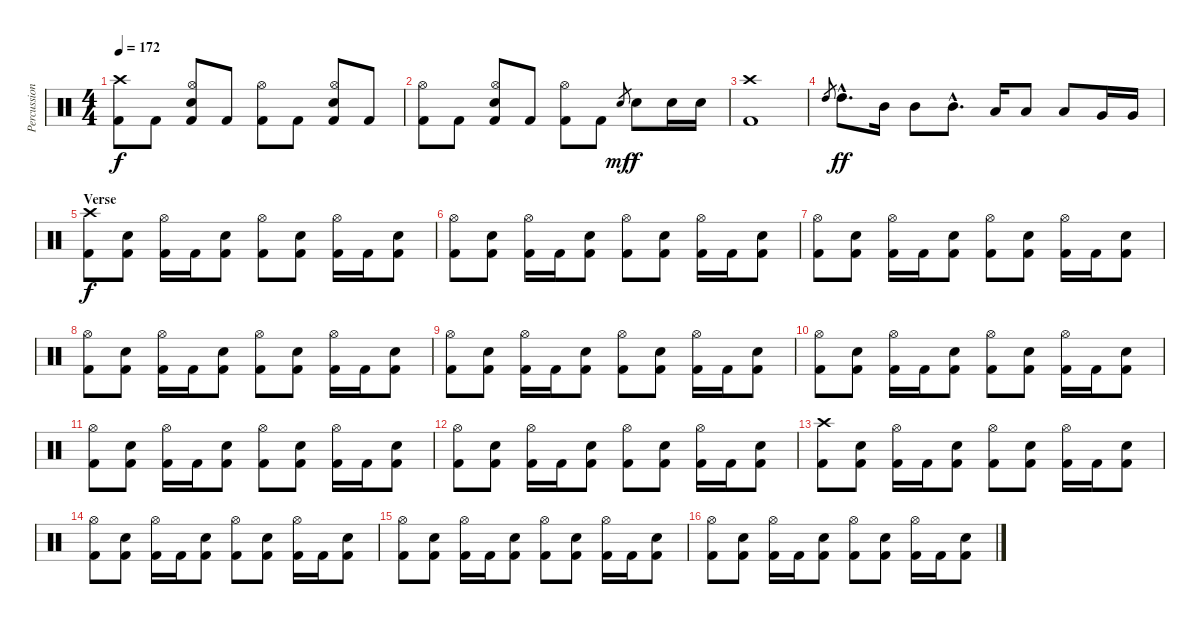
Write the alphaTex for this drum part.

\track ("Percussion" "Percussion") {instrument percussion}
\staff {score}
\articulation defaults
\ts (4 4)
\tempo 172
\clef neutral
\ks c
("Crash high (hit)" "Kick (hit) 2").8{dy f} "Kick (hit) 2".8 ("Hi-Hat (open)" "Electric Snare (hit)" "Kick (hit) 2").8 "Kick (hit) 2".8 ("Hi-Hat (open)" "Kick (hit) 2").8 "Kick (hit) 2".8 ("Hi-Hat (open)" "Electric Snare (hit)" "Kick (hit) 2").8 "Kick (hit) 2".8 |
("Hi-Hat (open)" "Kick (hit) 2").8 "Kick (hit) 2".8 ("Hi-Hat (open)" "Electric Snare (hit)" "Kick (hit) 2").8 "Kick (hit) 2".8 ("Hi-Hat (open)" "Kick (hit) 2").8 "Kick (hit) 2".8 "Electric Snare (hit)".8{gr dy mf} "Electric Snare (hit)".8{dy f} "Electric Snare (hit)".16 "Electric Snare (hit)".16 |
("Crash high (hit)" "Kick (hit) 2").1 |
"High Tom (hit)".8{gr} "High Tom (hit)"{hac}.8{d dy ff} "Mid Tom (hit)".16 "Mid Tom (hit)".8 "Mid Tom (hit)"{hac}.8{d} "Low Tom (hit)".16 "Low Tom (hit)".8 "Low Tom (hit)".8 "Very Low Tom (hit)".16 "Very Low Tom (hit)".16 |
\section ("" "Verse")
("Crash high (hit)" "Kick (hit) 2").8{dy f} ("Electric Snare (hit)" "Kick (hit) 2").8 ("Hi-Hat (open)" "Kick (hit) 2").16 "Kick (hit) 2".16 ("Electric Snare (hit)" "Kick (hit) 2").8 ("Hi-Hat (open)" "Kick (hit) 2").8 ("Electric Snare (hit)" "Kick (hit) 2").8 ("Hi-Hat (open)" "Kick (hit) 2").16 "Kick (hit) 2".16 ("Electric Snare (hit)" "Kick (hit) 2").8 |
("Hi-Hat (open)" "Kick (hit) 2").8 ("Electric Snare (hit)" "Kick (hit) 2").8 ("Hi-Hat (open)" "Kick (hit) 2").16 "Kick (hit) 2".16 ("Electric Snare (hit)" "Kick (hit) 2").8 ("Hi-Hat (open)" "Kick (hit) 2").8 ("Electric Snare (hit)" "Kick (hit) 2").8 ("Hi-Hat (open)" "Kick (hit) 2").16 "Kick (hit) 2".16 ("Electric Snare (hit)" "Kick (hit) 2").8 |
("Hi-Hat (open)" "Kick (hit) 2").8 ("Electric Snare (hit)" "Kick (hit) 2").8 ("Hi-Hat (open)" "Kick (hit) 2").16 "Kick (hit) 2".16 ("Electric Snare (hit)" "Kick (hit) 2").8 ("Hi-Hat (open)" "Kick (hit) 2").8 ("Electric Snare (hit)" "Kick (hit) 2").8 ("Hi-Hat (open)" "Kick (hit) 2").16 "Kick (hit) 2".16 ("Electric Snare (hit)" "Kick (hit) 2").8 |
("Hi-Hat (open)" "Kick (hit) 2").8 ("Electric Snare (hit)" "Kick (hit) 2").8 ("Hi-Hat (open)" "Kick (hit) 2").16 "Kick (hit) 2".16 ("Electric Snare (hit)" "Kick (hit) 2").8 ("Hi-Hat (open)" "Kick (hit) 2").8 ("Electric Snare (hit)" "Kick (hit) 2").8 ("Hi-Hat (open)" "Kick (hit) 2").16 "Kick (hit) 2".16 ("Electric Snare (hit)" "Kick (hit) 2").8 |
("Hi-Hat (open)" "Kick (hit) 2").8 ("Electric Snare (hit)" "Kick (hit) 2").8 ("Hi-Hat (open)" "Kick (hit) 2").16 "Kick (hit) 2".16 ("Electric Snare (hit)" "Kick (hit) 2").8 ("Hi-Hat (open)" "Kick (hit) 2").8 ("Electric Snare (hit)" "Kick (hit) 2").8 ("Hi-Hat (open)" "Kick (hit) 2").16 "Kick (hit) 2".16 ("Electric Snare (hit)" "Kick (hit) 2").8 |
("Hi-Hat (open)" "Kick (hit) 2").8 ("Electric Snare (hit)" "Kick (hit) 2").8 ("Hi-Hat (open)" "Kick (hit) 2").16 "Kick (hit) 2".16 ("Electric Snare (hit)" "Kick (hit) 2").8 ("Hi-Hat (open)" "Kick (hit) 2").8 ("Electric Snare (hit)" "Kick (hit) 2").8 ("Hi-Hat (open)" "Kick (hit) 2").16 "Kick (hit) 2".16 ("Electric Snare (hit)" "Kick (hit) 2").8 |
("Hi-Hat (open)" "Kick (hit) 2").8 ("Electric Snare (hit)" "Kick (hit) 2").8 ("Hi-Hat (open)" "Kick (hit) 2").16 "Kick (hit) 2".16 ("Electric Snare (hit)" "Kick (hit) 2").8 ("Hi-Hat (open)" "Kick (hit) 2").8 ("Electric Snare (hit)" "Kick (hit) 2").8 ("Hi-Hat (open)" "Kick (hit) 2").16 "Kick (hit) 2".16 ("Electric Snare (hit)" "Kick (hit) 2").8 |
("Hi-Hat (open)" "Kick (hit) 2").8 ("Electric Snare (hit)" "Kick (hit) 2").8 ("Hi-Hat (open)" "Kick (hit) 2").16 "Kick (hit) 2".16 ("Electric Snare (hit)" "Kick (hit) 2").8 ("Hi-Hat (open)" "Kick (hit) 2").8 ("Electric Snare (hit)" "Kick (hit) 2").8 ("Hi-Hat (open)" "Kick (hit) 2").16 "Kick (hit) 2".16 ("Electric Snare (hit)" "Kick (hit) 2").8 |
("Crash high (hit)" "Kick (hit) 2").8 ("Electric Snare (hit)" "Kick (hit) 2").8 ("Hi-Hat (open)" "Kick (hit) 2").16 "Kick (hit) 2".16 ("Electric Snare (hit)" "Kick (hit) 2").8 ("Hi-Hat (open)" "Kick (hit) 2").8 ("Electric Snare (hit)" "Kick (hit) 2").8 ("Hi-Hat (open)" "Kick (hit) 2").16 "Kick (hit) 2".16 ("Electric Snare (hit)" "Kick (hit) 2").8 |
("Hi-Hat (open)" "Kick (hit) 2").8 ("Electric Snare (hit)" "Kick (hit) 2").8 ("Hi-Hat (open)" "Kick (hit) 2").16 "Kick (hit) 2".16 ("Electric Snare (hit)" "Kick (hit) 2").8 ("Hi-Hat (open)" "Kick (hit) 2").8 ("Electric Snare (hit)" "Kick (hit) 2").8 ("Hi-Hat (open)" "Kick (hit) 2").16 "Kick (hit) 2".16 ("Electric Snare (hit)" "Kick (hit) 2").8 |
("Hi-Hat (open)" "Kick (hit) 2").8 ("Electric Snare (hit)" "Kick (hit) 2").8 ("Hi-Hat (open)" "Kick (hit) 2").16 "Kick (hit) 2".16 ("Electric Snare (hit)" "Kick (hit) 2").8 ("Hi-Hat (open)" "Kick (hit) 2").8 ("Electric Snare (hit)" "Kick (hit) 2").8 ("Hi-Hat (open)" "Kick (hit) 2").16 "Kick (hit) 2".16 ("Electric Snare (hit)" "Kick (hit) 2").8 |
("Hi-Hat (open)" "Kick (hit) 2").8 ("Electric Snare (hit)" "Kick (hit) 2").8 ("Hi-Hat (open)" "Kick (hit) 2").16 "Kick (hit) 2".16 ("Electric Snare (hit)" "Kick (hit) 2").8 ("Hi-Hat (open)" "Kick (hit) 2").8 ("Electric Snare (hit)" "Kick (hit) 2").8 ("Hi-Hat (open)" "Kick (hit) 2").16 "Kick (hit) 2".16 ("Electric Snare (hit)" "Kick (hit) 2").8
